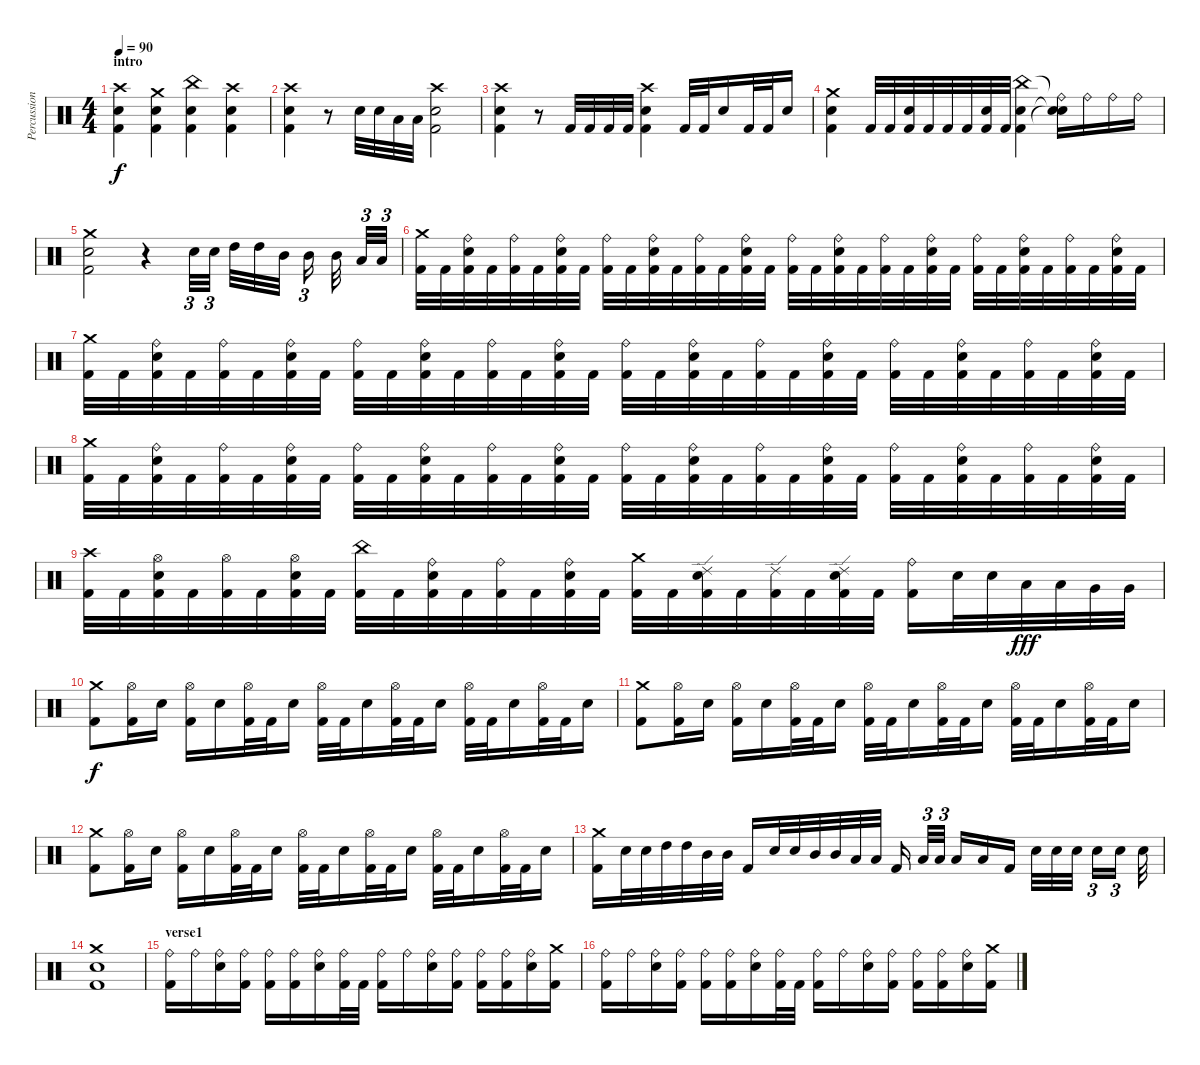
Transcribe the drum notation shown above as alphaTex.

\track ("Percussions" "Percussion") {instrument percussion}
\staff {score}
\articulation defaults
\ts (4 4)
\section ("" "intro")
\tempo 90
\tempo 100
\tempo 90
\clef neutral
\ks c
("Crash high (hit)" "Electric Snare (hit)" "Kick (hit) 2").4{dy f} ("Crash medium (hit)" "Electric Snare (hit)" "Kick (hit) 2").4 ("China (hit)" "Electric Snare (hit)" "Kick (hit) 2").4 ("Crash high (hit)" "Electric Snare (hit)" "Kick (hit) 2").4 |
("Crash high (hit)" "Electric Snare (hit)" "Kick (hit) 2").4 r.8 "Electric Snare (hit)".32 "Electric Snare (hit)".32 "Low Tom (hit)".32 "Low Tom (hit)".32 ("Crash high (hit)" "Electric Snare (hit)" "Kick (hit) 2").2 |
("Crash high (hit)" "Electric Snare (hit)" "Kick (hit) 2").4 r.8 "Kick (hit) 2".32 "Kick (hit) 2".32 "Kick (hit) 2".32 "Kick (hit) 2".32 ("Crash high (hit)" "Electric Snare (hit)" "Kick (hit) 2").4 "Kick (hit) 2".32 "Kick (hit) 2".32 "Electric Snare (hit)".16 "Kick (hit) 2".32 "Kick (hit) 2".32 "Electric Snare (hit)".16 |
("Crash medium (hit)" "Electric Snare (hit)" "Kick (hit) 2").4 "Kick (hit) 2".32 "Kick (hit) 2".32 ("Electric Snare (hit)" "Kick (hit) 2").32 "Kick (hit) 2".32 "Kick (hit) 2".32 "Kick (hit) 2".32 ("Electric Snare (hit)" "Kick (hit) 2").32 "Kick (hit) 2".32 ("China (hit)" "Electric Snare (hit)" "Kick (hit) 2").4 ("Ride (bell)"{t} "Snare (hit)"{t} "Snare (hit)"{t}).16 "Ride (bell)".16 "Ride (bell)".16 "Ride (bell)".16 |
("Crash medium (hit)" "Electric Snare (hit)" "Kick (hit) 2").2 r.4 "Electric Snare (hit)".32{tu (3 2)} "Electric Snare (hit)".32{tu (3 2)} "High Tom (hit)".32 "High Tom (hit)".32 "Mid Tom (hit)".32 "Mid Tom (hit)".16{tu (3 2)} "Mid Tom (hit)".32 "Low Tom (hit)".32{tu (3 2)} "Low Tom (hit)".32{tu (3 2)} |
("Crash medium (hit)" "Kick (hit) 2").32 "Kick (hit) 2".32 ("Ride (bell)" "Electric Snare (hit)" "Kick (hit) 2").32 "Kick (hit) 2".32 ("Ride (bell)" "Kick (hit) 2").32 "Kick (hit) 2".32 ("Ride (bell)" "Electric Snare (hit)" "Kick (hit) 2").32 "Kick (hit) 2".32 ("Ride (bell)" "Kick (hit) 2").32 "Kick (hit) 2".32 ("Ride (bell)" "Electric Snare (hit)" "Kick (hit) 2").32 "Kick (hit) 2".32 ("Ride (bell)" "Kick (hit) 2").32 "Kick (hit) 2".32 ("Ride (bell)" "Electric Snare (hit)" "Kick (hit) 2").32 "Kick (hit) 2".32 ("Ride (bell)" "Kick (hit) 2").32 "Kick (hit) 2".32 ("Ride (bell)" "Electric Snare (hit)" "Kick (hit) 2").32 "Kick (hit) 2".32 ("Ride (bell)" "Kick (hit) 2").32 "Kick (hit) 2".32 ("Ride (bell)" "Electric Snare (hit)" "Kick (hit) 2").32 "Kick (hit) 2".32 ("Ride (bell)" "Kick (hit) 2").32 "Kick (hit) 2".32 ("Ride (bell)" "Electric Snare (hit)" "Kick (hit) 2").32 "Kick (hit) 2".32 ("Ride (bell)" "Kick (hit) 2").32 "Kick (hit) 2".32 ("Ride (bell)" "Electric Snare (hit)" "Kick (hit) 2").32 "Kick (hit) 2".32 |
("Crash medium (hit)" "Kick (hit) 2").32 "Kick (hit) 2".32 ("Ride (bell)" "Electric Snare (hit)" "Kick (hit) 2").32 "Kick (hit) 2".32 ("Ride (bell)" "Kick (hit) 2").32 "Kick (hit) 2".32 ("Ride (bell)" "Electric Snare (hit)" "Kick (hit) 2").32 "Kick (hit) 2".32 ("Ride (bell)" "Kick (hit) 2").32 "Kick (hit) 2".32 ("Ride (bell)" "Electric Snare (hit)" "Kick (hit) 2").32 "Kick (hit) 2".32 ("Ride (bell)" "Kick (hit) 2").32 "Kick (hit) 2".32 ("Ride (bell)" "Electric Snare (hit)" "Kick (hit) 2").32 "Kick (hit) 2".32 ("Ride (bell)" "Kick (hit) 2").32 "Kick (hit) 2".32 ("Ride (bell)" "Electric Snare (hit)" "Kick (hit) 2").32 "Kick (hit) 2".32 ("Ride (bell)" "Kick (hit) 2").32 "Kick (hit) 2".32 ("Ride (bell)" "Electric Snare (hit)" "Kick (hit) 2").32 "Kick (hit) 2".32 ("Ride (bell)" "Kick (hit) 2").32 "Kick (hit) 2".32 ("Ride (bell)" "Electric Snare (hit)" "Kick (hit) 2").32 "Kick (hit) 2".32 ("Ride (bell)" "Kick (hit) 2").32 "Kick (hit) 2".32 ("Ride (bell)" "Electric Snare (hit)" "Kick (hit) 2").32 "Kick (hit) 2".32 |
("Crash medium (hit)" "Kick (hit) 2").32 "Kick (hit) 2".32 ("Ride (bell)" "Electric Snare (hit)" "Kick (hit) 2").32 "Kick (hit) 2".32 ("Ride (bell)" "Kick (hit) 2").32 "Kick (hit) 2".32 ("Ride (bell)" "Electric Snare (hit)" "Kick (hit) 2").32 "Kick (hit) 2".32 ("Ride (bell)" "Kick (hit) 2").32 "Kick (hit) 2".32 ("Ride (bell)" "Electric Snare (hit)" "Kick (hit) 2").32 "Kick (hit) 2".32 ("Ride (bell)" "Kick (hit) 2").32 "Kick (hit) 2".32 ("Ride (bell)" "Electric Snare (hit)" "Kick (hit) 2").32 "Kick (hit) 2".32 ("Ride (bell)" "Kick (hit) 2").32 "Kick (hit) 2".32 ("Ride (bell)" "Electric Snare (hit)" "Kick (hit) 2").32 "Kick (hit) 2".32 ("Ride (bell)" "Kick (hit) 2").32 "Kick (hit) 2".32 ("Ride (bell)" "Electric Snare (hit)" "Kick (hit) 2").32 "Kick (hit) 2".32 ("Ride (bell)" "Kick (hit) 2").32 "Kick (hit) 2".32 ("Ride (bell)" "Electric Snare (hit)" "Kick (hit) 2").32 "Kick (hit) 2".32 ("Ride (bell)" "Kick (hit) 2").32 "Kick (hit) 2".32 ("Ride (bell)" "Electric Snare (hit)" "Kick (hit) 2").32 "Kick (hit) 2".32 |
("Crash high (hit)" "Kick (hit) 2").32 "Kick (hit) 2".32 ("Hi-Hat (open)" "Electric Snare (hit)" "Kick (hit) 2").32 "Kick (hit) 2".32 ("Hi-Hat (open)" "Kick (hit) 2").32 "Kick (hit) 2".32 ("Hi-Hat (open)" "Electric Snare (hit)" "Kick (hit) 2").32 "Kick (hit) 2".32 ("China (hit)" "Kick (hit) 2").32 "Kick (hit) 2".32 ("Ride (bell)" "Electric Snare (hit)" "Kick (hit) 2").32 "Kick (hit) 2".32 ("Ride (bell)" "Kick (hit) 2").32 "Kick (hit) 2".32 ("Ride (bell)" "Electric Snare (hit)" "Kick (hit) 2").32 "Kick (hit) 2".32 ("Crash medium (hit)" "Kick (hit) 2").32 "Kick (hit) 2".32 ("Ride (edge) 2" "Electric Snare (hit)" "Kick (hit) 2").32 "Kick (hit) 2".32 ("Ride (edge) 2" "Kick (hit) 2").32 "Kick (hit) 2".32 ("Ride (edge) 2" "Electric Snare (hit)" "Kick (hit) 2").32 "Kick (hit) 2".32 ("Ride (bell)" "Kick (hit) 2").16 "Electric Snare (hit)".32 "Electric Snare (hit)".32 "Low Tom (hit)".32{dy fff} "Low Tom (hit)".32 "Very Low Tom (hit)".32 "Very Low Tom (hit)".32 |
("Crash medium (hit)" "Kick (hit) 2").8{dy f} ("Hi-Hat (open)" "Kick (hit) 2").16 "Electric Snare (hit)".16 ("Hi-Hat (open)" "Kick (hit) 2").16 "Electric Snare (hit)".16 ("Hi-Hat (open)" "Kick (hit) 2").32 "Kick (hit) 2".32 "Electric Snare (hit)".16 ("Hi-Hat (open)" "Kick (hit) 2").32 "Kick (hit) 2".32 "Electric Snare (hit)".16 ("Hi-Hat (open)" "Kick (hit) 2").32 "Kick (hit) 2".32 "Electric Snare (hit)".16 ("Hi-Hat (open)" "Kick (hit) 2").32 "Kick (hit) 2".32 "Electric Snare (hit)".16 ("Hi-Hat (open)" "Kick (hit) 2").32 "Kick (hit) 2".32 "Electric Snare (hit)".16 |
("Crash medium (hit)" "Kick (hit) 2").8 ("Hi-Hat (open)" "Kick (hit) 2").16 "Electric Snare (hit)".16 ("Hi-Hat (open)" "Kick (hit) 2").16 "Electric Snare (hit)".16 ("Hi-Hat (open)" "Kick (hit) 2").32 "Kick (hit) 2".32 "Electric Snare (hit)".16 ("Hi-Hat (open)" "Kick (hit) 2").32 "Kick (hit) 2".32 "Electric Snare (hit)".16 ("Hi-Hat (open)" "Kick (hit) 2").32 "Kick (hit) 2".32 "Electric Snare (hit)".16 ("Hi-Hat (open)" "Kick (hit) 2").32 "Kick (hit) 2".32 "Electric Snare (hit)".16 ("Hi-Hat (open)" "Kick (hit) 2").32 "Kick (hit) 2".32 "Electric Snare (hit)".16 |
("Crash medium (hit)" "Kick (hit) 2").8 ("Hi-Hat (open)" "Kick (hit) 2").16 "Electric Snare (hit)".16 ("Hi-Hat (open)" "Kick (hit) 2").16 "Electric Snare (hit)".16 ("Hi-Hat (open)" "Kick (hit) 2").32 "Kick (hit) 2".32 "Electric Snare (hit)".16 ("Hi-Hat (open)" "Kick (hit) 2").32 "Kick (hit) 2".32 "Electric Snare (hit)".16 ("Hi-Hat (open)" "Kick (hit) 2").32 "Kick (hit) 2".32 "Electric Snare (hit)".16 ("Hi-Hat (open)" "Kick (hit) 2").32 "Kick (hit) 2".32 "Electric Snare (hit)".16 ("Hi-Hat (open)" "Kick (hit) 2").32 "Kick (hit) 2".32 "Electric Snare (hit)".16 |
("Crash medium (hit)" "Kick (hit) 2").16 "Electric Snare (hit)".32 "Electric Snare (hit)".32 "High Tom (hit)".32 "High Tom (hit)".32 "Mid Tom (hit)".32 "Mid Tom (hit)".32 "Kick (hit) 2".16 "Electric Snare (hit)".32 "Electric Snare (hit)".32 "Mid Tom (hit)".32 "Mid Tom (hit)".32 "Low Tom (hit)".32 "Low Tom (hit)".32 "Kick (hit) 2".16 "Low Tom (hit)".32{tu (3 2)} "Low Tom (hit)".32{tu (3 2)} "Low Tom (hit)".16 "Low Tom (hit)".16 "Kick (hit) 2".16 "Electric Snare (hit)".32 "Electric Snare (hit)".32 "Electric Snare (hit)".32 "Electric Snare (hit)".16{tu (3 2)} "Electric Snare (hit)".16{tu (3 2)} "Electric Snare (hit)".32 |
("Crash medium (hit)" "Electric Snare (hit)" "Kick (hit) 2").1 |
\section ("" "verse1")
("Ride (bell)" "Kick (hit) 2").16 "Ride (bell)".16 ("Ride (bell)" "Electric Snare (hit)").16 ("Ride (bell)" "Kick (hit) 2").16 ("Ride (bell)" "Kick (hit) 2").16 ("Ride (bell)" "Kick (hit) 2").16 ("Ride (bell)" "Electric Snare (hit)").16 ("Ride (bell)" "Kick (hit) 2").32 "Kick (hit) 2".32 ("Ride (bell)" "Kick (hit) 2").16 "Ride (bell)".16 ("Ride (bell)" "Electric Snare (hit)").16 ("Ride (bell)" "Kick (hit) 2").16 ("Ride (bell)" "Kick (hit) 2").16 ("Ride (bell)" "Kick (hit) 2").16 ("Ride (bell)" "Electric Snare (hit)").16 ("Crash medium (hit)" "Kick (hit) 2").16 |
("Ride (bell)" "Kick (hit) 2").16 "Ride (bell)".16 ("Ride (bell)" "Electric Snare (hit)").16 ("Ride (bell)" "Kick (hit) 2").16 ("Ride (bell)" "Kick (hit) 2").16 ("Ride (bell)" "Kick (hit) 2").16 ("Ride (bell)" "Electric Snare (hit)").16 ("Ride (bell)" "Kick (hit) 2").32 "Kick (hit) 2".32 ("Ride (bell)" "Kick (hit) 2").16 "Ride (bell)".16 ("Ride (bell)" "Electric Snare (hit)").16 ("Ride (bell)" "Kick (hit) 2").16 ("Ride (bell)" "Kick (hit) 2").16 ("Ride (bell)" "Kick (hit) 2").16 ("Ride (bell)" "Electric Snare (hit)").16 ("Crash medium (hit)" "Kick (hit) 2").16
